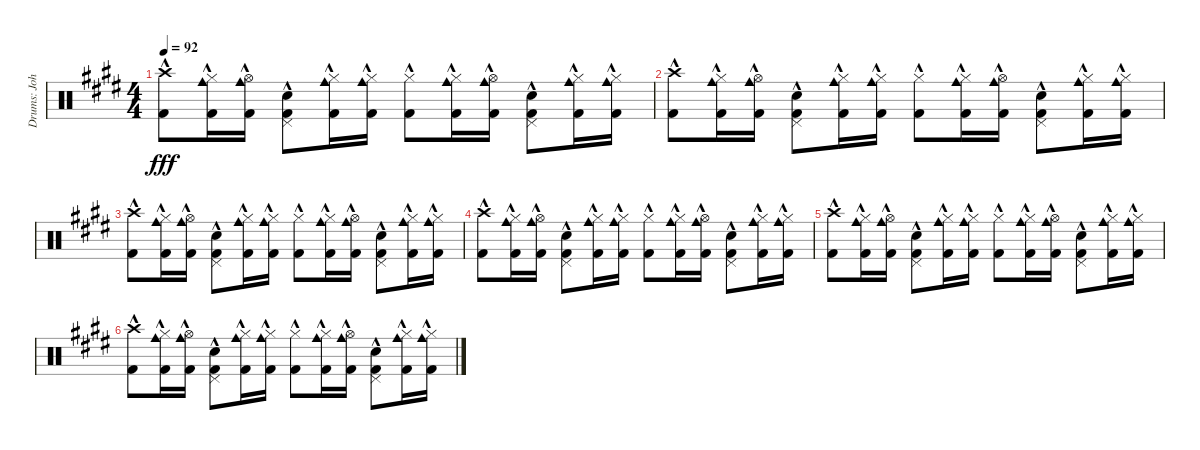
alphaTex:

\track ("Drums: John" "Drums: Joh") {instrument percussion}
\staff {score}
\articulation defaults
\ts (4 4)
\tempo 92
\clef neutral
\ks e
("Crash high (hit)"{hac} "Kick (hit) 2"{hac}).8{dy fff} ("Hi-Hat (closed)"{hac} "Kick (hit) 2"{hac} "Cowbell medium (hit)"{hac}).16 ("Hi-Hat (open)"{hac} "Kick (hit) 2"{hac} "Cowbell medium (hit)"{hac}).16 ("Pedal Hi-Hat (hit)"{hac} "Snare (hit) 2"{hac} "Kick (hit) 2"{hac}).8 ("Hi-Hat (closed)"{hac} "Kick (hit) 2"{hac} "Cowbell medium (hit)"{hac}).16 ("Hi-Hat (closed)"{hac} "Kick (hit) 2"{hac} "Cowbell medium (hit)"{hac}).16 ("Hi-Hat (closed)"{hac} "Kick (hit) 2"{hac}).8 ("Hi-Hat (closed)"{hac} "Kick (hit) 2"{hac} "Cowbell medium (hit)"{hac}).16 ("Hi-Hat (open)"{hac} "Kick (hit) 2"{hac} "Cowbell medium (hit)"{hac}).16 ("Pedal Hi-Hat (hit)"{hac} "Snare (hit) 2"{hac} "Kick (hit) 2"{hac}).8 ("Hi-Hat (closed)"{hac} "Kick (hit) 2"{hac} "Cowbell medium (hit)"{hac}).16 ("Hi-Hat (closed)"{hac} "Kick (hit) 2"{hac} "Cowbell medium (hit)"{hac}).16 |
("Crash high (hit)"{hac} "Kick (hit) 2"{hac}).8 ("Hi-Hat (closed)"{hac} "Kick (hit) 2"{hac} "Cowbell medium (hit)"{hac}).16 ("Hi-Hat (open)"{hac} "Kick (hit) 2"{hac} "Cowbell medium (hit)"{hac}).16 ("Pedal Hi-Hat (hit)"{hac} "Snare (hit) 2"{hac} "Kick (hit) 2"{hac}).8 ("Hi-Hat (closed)"{hac} "Kick (hit) 2"{hac} "Cowbell medium (hit)"{hac}).16 ("Hi-Hat (closed)"{hac} "Kick (hit) 2"{hac} "Cowbell medium (hit)"{hac}).16 ("Hi-Hat (closed)"{hac} "Kick (hit) 2"{hac}).8 ("Hi-Hat (closed)"{hac} "Kick (hit) 2"{hac} "Cowbell medium (hit)"{hac}).16 ("Hi-Hat (open)"{hac} "Kick (hit) 2"{hac} "Cowbell medium (hit)"{hac}).16 ("Pedal Hi-Hat (hit)"{hac} "Snare (hit) 2"{hac} "Kick (hit) 2"{hac}).8 ("Hi-Hat (closed)"{hac} "Kick (hit) 2"{hac} "Cowbell medium (hit)"{hac}).16 ("Hi-Hat (closed)"{hac} "Kick (hit) 2"{hac} "Cowbell medium (hit)"{hac}).16 |
("Crash high (hit)"{hac} "Kick (hit) 2"{hac}).8 ("Hi-Hat (closed)"{hac} "Kick (hit) 2"{hac} "Cowbell medium (hit)"{hac}).16 ("Hi-Hat (open)"{hac} "Kick (hit) 2"{hac} "Cowbell medium (hit)"{hac}).16 ("Pedal Hi-Hat (hit)"{hac} "Snare (hit) 2"{hac} "Kick (hit) 2"{hac}).8 ("Hi-Hat (closed)"{hac} "Kick (hit) 2"{hac} "Cowbell medium (hit)"{hac}).16 ("Hi-Hat (closed)"{hac} "Kick (hit) 2"{hac} "Cowbell medium (hit)"{hac}).16 ("Hi-Hat (closed)"{hac} "Kick (hit) 2"{hac}).8 ("Hi-Hat (closed)"{hac} "Kick (hit) 2"{hac} "Cowbell medium (hit)"{hac}).16 ("Hi-Hat (open)"{hac} "Kick (hit) 2"{hac} "Cowbell medium (hit)"{hac}).16 ("Pedal Hi-Hat (hit)"{hac} "Snare (hit) 2"{hac} "Kick (hit) 2"{hac}).8 ("Hi-Hat (closed)"{hac} "Kick (hit) 2"{hac} "Cowbell medium (hit)"{hac}).16 ("Hi-Hat (closed)"{hac} "Kick (hit) 2"{hac} "Cowbell medium (hit)"{hac}).16 |
("Crash high (hit)"{hac} "Kick (hit) 2"{hac}).8 ("Hi-Hat (closed)"{hac} "Kick (hit) 2"{hac} "Cowbell medium (hit)"{hac}).16 ("Hi-Hat (open)"{hac} "Kick (hit) 2"{hac} "Cowbell medium (hit)"{hac}).16 ("Pedal Hi-Hat (hit)"{hac} "Snare (hit) 2"{hac} "Kick (hit) 2"{hac}).8 ("Hi-Hat (closed)"{hac} "Kick (hit) 2"{hac} "Cowbell medium (hit)"{hac}).16 ("Hi-Hat (closed)"{hac} "Kick (hit) 2"{hac} "Cowbell medium (hit)"{hac}).16 ("Hi-Hat (closed)"{hac} "Kick (hit) 2"{hac}).8 ("Hi-Hat (closed)"{hac} "Kick (hit) 2"{hac} "Cowbell medium (hit)"{hac}).16 ("Hi-Hat (open)"{hac} "Kick (hit) 2"{hac} "Cowbell medium (hit)"{hac}).16 ("Pedal Hi-Hat (hit)"{hac} "Snare (hit) 2"{hac} "Kick (hit) 2"{hac}).8 ("Hi-Hat (closed)"{hac} "Kick (hit) 2"{hac} "Cowbell medium (hit)"{hac}).16 ("Hi-Hat (closed)"{hac} "Kick (hit) 2"{hac} "Cowbell medium (hit)"{hac}).16 |
("Crash high (hit)"{hac} "Kick (hit) 2"{hac}).8 ("Hi-Hat (closed)"{hac} "Kick (hit) 2"{hac} "Cowbell medium (hit)"{hac}).16 ("Hi-Hat (open)"{hac} "Kick (hit) 2"{hac} "Cowbell medium (hit)"{hac}).16 ("Pedal Hi-Hat (hit)"{hac} "Snare (hit) 2"{hac} "Kick (hit) 2"{hac}).8 ("Hi-Hat (closed)"{hac} "Kick (hit) 2"{hac} "Cowbell medium (hit)"{hac}).16 ("Hi-Hat (closed)"{hac} "Kick (hit) 2"{hac} "Cowbell medium (hit)"{hac}).16 ("Hi-Hat (closed)"{hac} "Kick (hit) 2"{hac}).8 ("Hi-Hat (closed)"{hac} "Kick (hit) 2"{hac} "Cowbell medium (hit)"{hac}).16 ("Hi-Hat (open)"{hac} "Kick (hit) 2"{hac} "Cowbell medium (hit)"{hac}).16 ("Pedal Hi-Hat (hit)"{hac} "Snare (hit) 2"{hac} "Kick (hit) 2"{hac}).8 ("Hi-Hat (closed)"{hac} "Kick (hit) 2"{hac} "Cowbell medium (hit)"{hac}).16 ("Hi-Hat (closed)"{hac} "Kick (hit) 2"{hac} "Cowbell medium (hit)"{hac}).16 |
("Crash high (hit)"{hac} "Kick (hit) 2"{hac}).8 ("Hi-Hat (closed)"{hac} "Kick (hit) 2"{hac} "Cowbell medium (hit)"{hac}).16 ("Hi-Hat (open)"{hac} "Kick (hit) 2"{hac} "Cowbell medium (hit)"{hac}).16 ("Pedal Hi-Hat (hit)"{hac} "Snare (hit) 2"{hac} "Kick (hit) 2"{hac}).8 ("Hi-Hat (closed)"{hac} "Kick (hit) 2"{hac} "Cowbell medium (hit)"{hac}).16 ("Hi-Hat (closed)"{hac} "Kick (hit) 2"{hac} "Cowbell medium (hit)"{hac}).16 ("Hi-Hat (closed)"{hac} "Kick (hit) 2"{hac}).8 ("Hi-Hat (closed)"{hac} "Kick (hit) 2"{hac} "Cowbell medium (hit)"{hac}).16 ("Hi-Hat (open)"{hac} "Kick (hit) 2"{hac} "Cowbell medium (hit)"{hac}).16 ("Pedal Hi-Hat (hit)"{hac} "Snare (hit) 2"{hac} "Kick (hit) 2"{hac}).8 ("Hi-Hat (closed)"{hac} "Kick (hit) 2"{hac} "Cowbell medium (hit)"{hac}).16 ("Hi-Hat (closed)"{hac} "Kick (hit) 2"{hac} "Cowbell medium (hit)"{hac}).16
